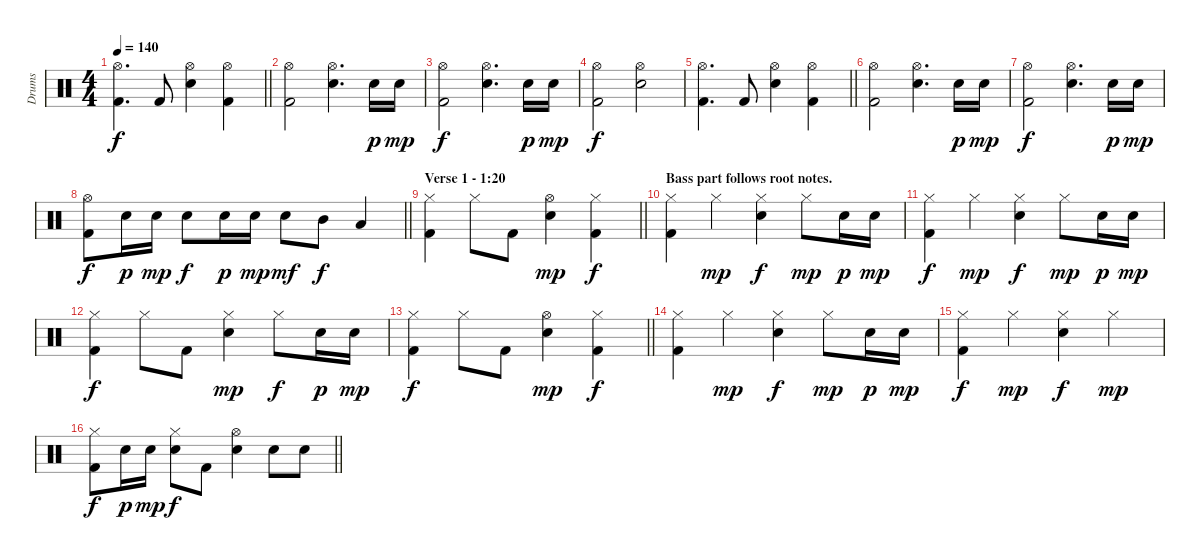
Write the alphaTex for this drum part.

\track ("Drums" "Drums") {instrument percussion}
\staff {score}
\articulation defaults
\ts (4 4)
\tempo 140
\clef neutral
\barLineRight lightlight
\ks c
("Hi-Hat (open)" "Kick (hit) 2").4{d dy f} "Kick (hit) 2".8 ("Hi-Hat (open)" "Electric Snare (hit)").4 ("Hi-Hat (open)" "Kick (hit) 2").4 |
("Hi-Hat (open)" "Kick (hit) 2").2 ("Hi-Hat (open)" "Electric Snare (hit)").4{d} "Electric Snare (hit)".16{dy p} "Electric Snare (hit)".16{dy mp} |
("Hi-Hat (open)" "Kick (hit) 2").2{dy f} ("Hi-Hat (open)" "Electric Snare (hit)").4{d} "Electric Snare (hit)".16{dy p} "Electric Snare (hit)".16{dy mp} |
("Hi-Hat (open)" "Kick (hit) 2").2{dy f} ("Hi-Hat (open)" "Electric Snare (hit)").2 |
\barLineRight lightlight
("Hi-Hat (open)" "Kick (hit) 2").4{d} "Kick (hit) 2".8 ("Hi-Hat (open)" "Electric Snare (hit)").4 ("Hi-Hat (open)" "Kick (hit) 2").4 |
("Hi-Hat (open)" "Kick (hit) 2").2 ("Hi-Hat (open)" "Electric Snare (hit)").4{d} "Electric Snare (hit)".16{dy p} "Electric Snare (hit)".16{dy mp} |
("Hi-Hat (open)" "Kick (hit) 2").2{dy f} ("Hi-Hat (open)" "Electric Snare (hit)").4{d} "Electric Snare (hit)".16{dy p} "Electric Snare (hit)".16{dy mp} |
\barLineRight lightlight
("Hi-Hat (open)" "Kick (hit) 2").8{dy f} "Electric Snare (hit)".16{dy p} "Electric Snare (hit)".16{dy mp} "Electric Snare (hit)".8{dy f} "Electric Snare (hit)".16{dy p} "Electric Snare (hit)".16{dy mp} "Electric Snare (hit)".8{dy mf} "Mid Tom (hit)".8{dy f} "Low Tom (hit)".4 |
\section ("" "Verse 1 - 1:20")
\barLineRight lightlight
("Hi-Hat (closed)" "Kick (hit) 2").4 "Hi-Hat (closed)".8 "Kick (hit) 2".8 ("Hi-Hat (open)" "Electric Snare (hit)").4{dy mp} ("Hi-Hat (closed)" "Kick (hit) 2").4{dy f} |
\section ("" "Bass part follows root notes.")
("Hi-Hat (closed)" "Kick (hit) 2").4 "Hi-Hat (closed)".4{dy mp} ("Hi-Hat (closed)" "Electric Snare (hit)").4{dy f} "Hi-Hat (closed)".8{dy mp} "Electric Snare (hit)".16{dy p} "Electric Snare (hit)".16{dy mp} |
("Hi-Hat (closed)" "Kick (hit) 2").4{dy f} "Hi-Hat (closed)".4{dy mp} ("Hi-Hat (closed)" "Electric Snare (hit)").4{dy f} "Hi-Hat (closed)".8{dy mp} "Electric Snare (hit)".16{dy p} "Electric Snare (hit)".16{dy mp} |
("Hi-Hat (closed)" "Kick (hit) 2").4{dy f} "Hi-Hat (closed)".8 "Kick (hit) 2".8 ("Hi-Hat (closed)" "Electric Snare (hit)").4{dy mp} "Hi-Hat (closed)".8{dy f} "Electric Snare (hit)".16{dy p} "Electric Snare (hit)".16{dy mp} |
\barLineRight lightlight
("Hi-Hat (closed)" "Kick (hit) 2").4{dy f} "Hi-Hat (closed)".8 "Kick (hit) 2".8 ("Hi-Hat (open)" "Electric Snare (hit)").4{dy mp} ("Hi-Hat (closed)" "Kick (hit) 2").4{dy f} |
("Hi-Hat (closed)" "Kick (hit) 2").4 "Hi-Hat (closed)".4{dy mp} ("Hi-Hat (closed)" "Electric Snare (hit)").4{dy f} "Hi-Hat (closed)".8{dy mp} "Electric Snare (hit)".16{dy p} "Electric Snare (hit)".16{dy mp} |
("Hi-Hat (closed)" "Kick (hit) 2").4{dy f} "Hi-Hat (closed)".4{dy mp} ("Hi-Hat (closed)" "Electric Snare (hit)").4{dy f} "Hi-Hat (closed)".4{dy mp} |
\barLineRight lightlight
("Hi-Hat (closed)" "Kick (hit) 2").8{dy f} "Electric Snare (hit)".16{dy p} "Electric Snare (hit)".16{dy mp} ("Hi-Hat (closed)" "Electric Snare (hit)").8{dy f} "Kick (hit) 2".8 ("Hi-Hat (open)" "Electric Snare (hit)").4 "Electric Snare (hit)".8 "Electric Snare (hit)".8
